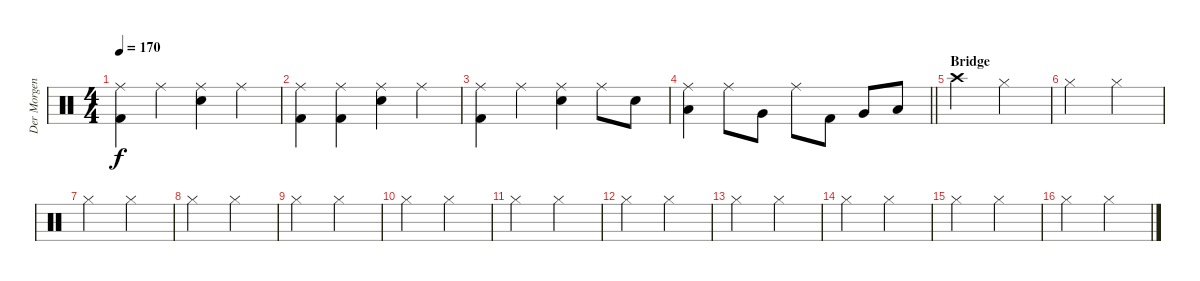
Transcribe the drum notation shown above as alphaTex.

\track ("Der Morgenstern" "Der Morgen") {instrument percussion}
\staff {score}
\articulation defaults
\ts (4 4)
\tempo 170
\clef neutral
\ks c
("Ride (middle)" "Kick (hit) 2").4{dy f} "Ride (middle)".4 ("Ride (middle)" "Electric Snare (hit)").4 "Ride (middle)".4 |
("Ride (middle)" "Kick (hit) 2").4 ("Ride (middle)" "Kick (hit) 2").4 ("Ride (middle)" "Electric Snare (hit)").4 "Ride (middle)".4 |
("Ride (middle)" "Kick (hit) 2").4 "Ride (middle)".4 ("Ride (middle)" "Electric Snare (hit)").4 "Ride (middle)".8 "Electric Snare (hit)".8 |
\barLineRight lightlight
("Ride (middle)" "Low Tom (hit)").4 "Ride (middle)".8 "Very Low Tom (hit)".8 "Ride (middle)".8 "Kick (hit) 2".8 "Very Low Tom (hit)".8 "Low Floor Tom (hit)".8 |
\section ("" "Bridge")
"Crash high (hit)".2 "Hi-Hat (closed)".2 |
"Hi-Hat (closed)".2 "Hi-Hat (closed)".2 |
"Hi-Hat (closed)".2 "Hi-Hat (closed)".2 |
"Hi-Hat (closed)".2 "Hi-Hat (closed)".2 |
"Hi-Hat (closed)".2 "Hi-Hat (closed)".2 |
"Hi-Hat (closed)".2 "Hi-Hat (closed)".2 |
"Hi-Hat (closed)".2 "Hi-Hat (closed)".2 |
"Hi-Hat (closed)".2 "Hi-Hat (closed)".2 |
"Hi-Hat (closed)".2 "Hi-Hat (closed)".2 |
"Hi-Hat (closed)".2 "Hi-Hat (closed)".2 |
"Hi-Hat (closed)".2 "Hi-Hat (closed)".2 |
"Hi-Hat (closed)".2 "Hi-Hat (closed)".2
